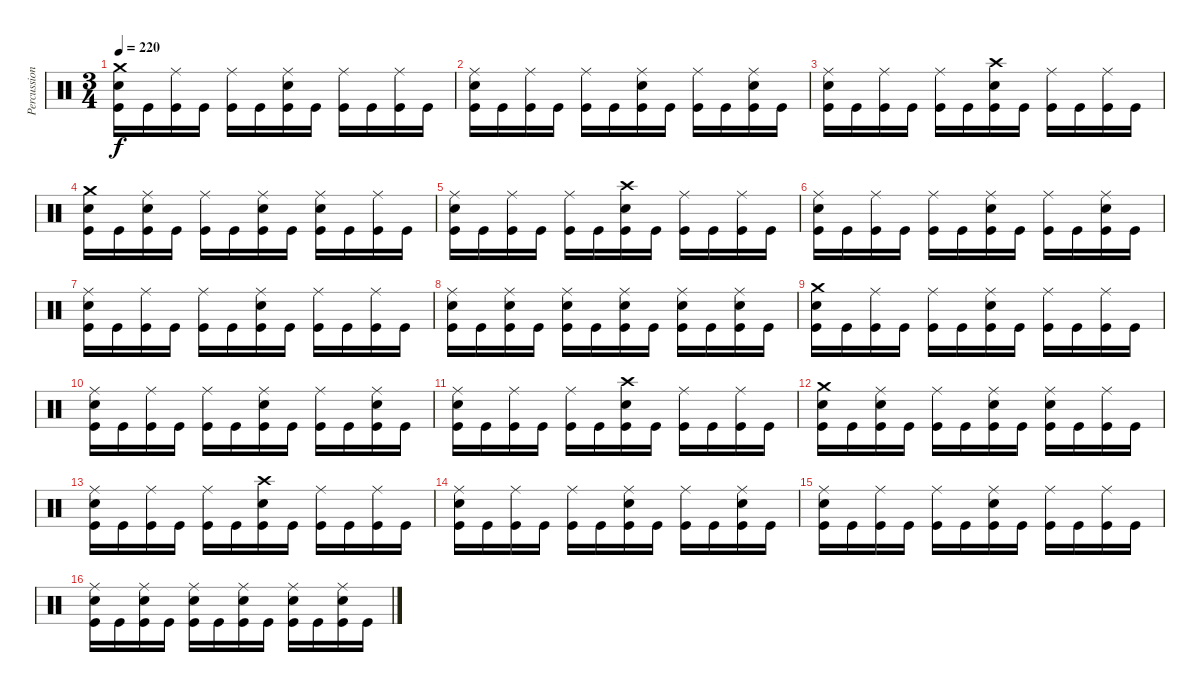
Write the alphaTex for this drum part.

\track ("Percussion" "Percussion") {instrument percussion}
\staff {score}
\articulation defaults
\ts (3 4)
\tempo 220
\clef neutral
\ks c
("Crash medium (hit)" "Electric Snare (hit)" "Kick (hit)").16{dy f} "Kick (hit)".16 ("Ride (middle)" "Kick (hit)").16 "Kick (hit)".16 ("Ride (middle)" "Kick (hit)").16 "Kick (hit)".16 ("Ride (middle)" "Electric Snare (hit)" "Kick (hit)").16 "Kick (hit)".16 ("Ride (middle)" "Kick (hit)").16 "Kick (hit)".16 ("Ride (middle)" "Kick (hit)").16 "Kick (hit)".16 |
("Ride (middle)" "Electric Snare (hit)" "Kick (hit)").16 "Kick (hit)".16 ("Ride (middle)" "Kick (hit)").16 "Kick (hit)".16 ("Ride (middle)" "Kick (hit)").16 "Kick (hit)".16 ("Ride (middle)" "Electric Snare (hit)" "Kick (hit)").16 "Kick (hit)".16 ("Ride (middle)" "Kick (hit)").16 "Kick (hit)".16 ("Ride (middle)" "Electric Snare (hit)" "Kick (hit)").16 "Kick (hit)".16 |
("Ride (middle)" "Electric Snare (hit)" "Kick (hit)").16 "Kick (hit)".16 ("Ride (middle)" "Kick (hit)").16 "Kick (hit)".16 ("Ride (middle)" "Kick (hit)").16 "Kick (hit)".16 ("Crash high (hit)" "Electric Snare (hit)" "Kick (hit)").16 "Kick (hit)".16 ("Ride (middle)" "Kick (hit)").16 "Kick (hit)".16 ("Ride (middle)" "Kick (hit)").16 "Kick (hit)".16 |
("Crash medium (hit)" "Electric Snare (hit)" "Kick (hit)").16 "Kick (hit)".16 ("Ride (middle)" "Electric Snare (hit)" "Kick (hit)").16 "Kick (hit)".16 ("Ride (middle)" "Kick (hit)").16 "Kick (hit)".16 ("Ride (middle)" "Electric Snare (hit)" "Kick (hit)").16 "Kick (hit)".16 ("Ride (middle)" "Electric Snare (hit)" "Kick (hit)").16 "Kick (hit)".16 ("Ride (middle)" "Kick (hit)").16 "Kick (hit)".16 |
("Ride (middle)" "Electric Snare (hit)" "Kick (hit)").16 "Kick (hit)".16 ("Ride (middle)" "Kick (hit)").16 "Kick (hit)".16 ("Ride (middle)" "Kick (hit)").16 "Kick (hit)".16 ("Crash high (hit)" "Electric Snare (hit)" "Kick (hit)").16 "Kick (hit)".16 ("Ride (middle)" "Kick (hit)").16 "Kick (hit)".16 ("Ride (middle)" "Kick (hit)").16 "Kick (hit)".16 |
("Ride (middle)" "Electric Snare (hit)" "Kick (hit)").16 "Kick (hit)".16 ("Ride (middle)" "Kick (hit)").16 "Kick (hit)".16 ("Ride (middle)" "Kick (hit)").16 "Kick (hit)".16 ("Ride (middle)" "Electric Snare (hit)" "Kick (hit)").16 "Kick (hit)".16 ("Ride (middle)" "Kick (hit)").16 "Kick (hit)".16 ("Ride (middle)" "Electric Snare (hit)" "Kick (hit)").16 "Kick (hit)".16 |
("Ride (middle)" "Electric Snare (hit)" "Kick (hit)").16 "Kick (hit)".16 ("Ride (middle)" "Kick (hit)").16 "Kick (hit)".16 ("Ride (middle)" "Kick (hit)").16 "Kick (hit)".16 ("Ride (middle)" "Electric Snare (hit)" "Kick (hit)").16 "Kick (hit)".16 ("Ride (middle)" "Kick (hit)").16 "Kick (hit)".16 ("Ride (middle)" "Kick (hit)").16 "Kick (hit)".16 |
("Ride (middle)" "Electric Snare (hit)" "Kick (hit)").16 "Kick (hit)".16 ("Ride (middle)" "Electric Snare (hit)" "Kick (hit)").16 "Kick (hit)".16 ("Ride (middle)" "Electric Snare (hit)" "Kick (hit)").16 "Kick (hit)".16 ("Ride (middle)" "Electric Snare (hit)" "Kick (hit)").16 "Kick (hit)".16 ("Ride (middle)" "Electric Snare (hit)" "Kick (hit)").16 "Kick (hit)".16 ("Ride (middle)" "Electric Snare (hit)" "Kick (hit)").16 "Kick (hit)".16 |
("Crash medium (hit)" "Electric Snare (hit)" "Kick (hit)").16 "Kick (hit)".16 ("Ride (middle)" "Kick (hit)").16 "Kick (hit)".16 ("Ride (middle)" "Kick (hit)").16 "Kick (hit)".16 ("Ride (middle)" "Electric Snare (hit)" "Kick (hit)").16 "Kick (hit)".16 ("Ride (middle)" "Kick (hit)").16 "Kick (hit)".16 ("Ride (middle)" "Kick (hit)").16 "Kick (hit)".16 |
("Ride (middle)" "Electric Snare (hit)" "Kick (hit)").16 "Kick (hit)".16 ("Ride (middle)" "Kick (hit)").16 "Kick (hit)".16 ("Ride (middle)" "Kick (hit)").16 "Kick (hit)".16 ("Ride (middle)" "Electric Snare (hit)" "Kick (hit)").16 "Kick (hit)".16 ("Ride (middle)" "Kick (hit)").16 "Kick (hit)".16 ("Ride (middle)" "Electric Snare (hit)" "Kick (hit)").16 "Kick (hit)".16 |
("Ride (middle)" "Electric Snare (hit)" "Kick (hit)").16 "Kick (hit)".16 ("Ride (middle)" "Kick (hit)").16 "Kick (hit)".16 ("Ride (middle)" "Kick (hit)").16 "Kick (hit)".16 ("Crash high (hit)" "Electric Snare (hit)" "Kick (hit)").16 "Kick (hit)".16 ("Ride (middle)" "Kick (hit)").16 "Kick (hit)".16 ("Ride (middle)" "Kick (hit)").16 "Kick (hit)".16 |
("Crash medium (hit)" "Electric Snare (hit)" "Kick (hit)").16 "Kick (hit)".16 ("Ride (middle)" "Electric Snare (hit)" "Kick (hit)").16 "Kick (hit)".16 ("Ride (middle)" "Kick (hit)").16 "Kick (hit)".16 ("Ride (middle)" "Electric Snare (hit)" "Kick (hit)").16 "Kick (hit)".16 ("Ride (middle)" "Electric Snare (hit)" "Kick (hit)").16 "Kick (hit)".16 ("Ride (middle)" "Kick (hit)").16 "Kick (hit)".16 |
("Ride (middle)" "Electric Snare (hit)" "Kick (hit)").16 "Kick (hit)".16 ("Ride (middle)" "Kick (hit)").16 "Kick (hit)".16 ("Ride (middle)" "Kick (hit)").16 "Kick (hit)".16 ("Crash high (hit)" "Electric Snare (hit)" "Kick (hit)").16 "Kick (hit)".16 ("Ride (middle)" "Kick (hit)").16 "Kick (hit)".16 ("Ride (middle)" "Kick (hit)").16 "Kick (hit)".16 |
("Ride (middle)" "Electric Snare (hit)" "Kick (hit)").16 "Kick (hit)".16 ("Ride (middle)" "Kick (hit)").16 "Kick (hit)".16 ("Ride (middle)" "Kick (hit)").16 "Kick (hit)".16 ("Ride (middle)" "Electric Snare (hit)" "Kick (hit)").16 "Kick (hit)".16 ("Ride (middle)" "Kick (hit)").16 "Kick (hit)".16 ("Ride (middle)" "Electric Snare (hit)" "Kick (hit)").16 "Kick (hit)".16 |
("Ride (middle)" "Electric Snare (hit)" "Kick (hit)").16 "Kick (hit)".16 ("Ride (middle)" "Kick (hit)").16 "Kick (hit)".16 ("Ride (middle)" "Kick (hit)").16 "Kick (hit)".16 ("Ride (middle)" "Electric Snare (hit)" "Kick (hit)").16 "Kick (hit)".16 ("Ride (middle)" "Kick (hit)").16 "Kick (hit)".16 ("Ride (middle)" "Kick (hit)").16 "Kick (hit)".16 |
("Ride (middle)" "Electric Snare (hit)" "Kick (hit)").16 "Kick (hit)".16 ("Ride (middle)" "Electric Snare (hit)" "Kick (hit)").16 "Kick (hit)".16 ("Ride (middle)" "Electric Snare (hit)" "Kick (hit)").16 "Kick (hit)".16 ("Ride (middle)" "Electric Snare (hit)" "Kick (hit)").16 "Kick (hit)".16 ("Ride (middle)" "Electric Snare (hit)" "Kick (hit)").16 "Kick (hit)".16 ("Ride (middle)" "Electric Snare (hit)" "Kick (hit)").16 "Kick (hit)".16
